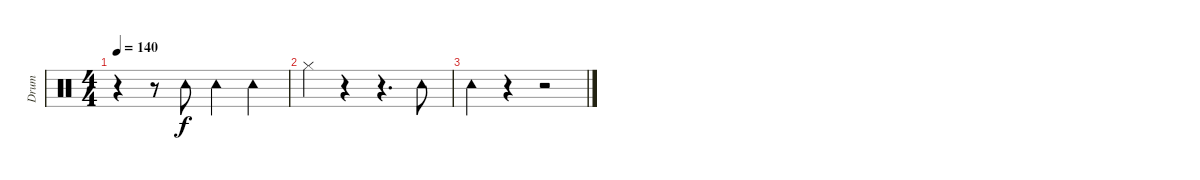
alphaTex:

\track ("Drum" "Drum") {instrument percussion}
\staff {score}
\articulation defaults
\ts (4 4)
\tempo 140
\clef neutral
\ks c
r.4{dy f} r.8 "Tambourine (hit)".8 "Tambourine (hit)".4 "Tambourine (hit)".4 |
"Hi-Hat (closed)".4 r.4 r.4{d} "Tambourine (hit)".8 |
"Tambourine (hit)".4 r.4 r.2
